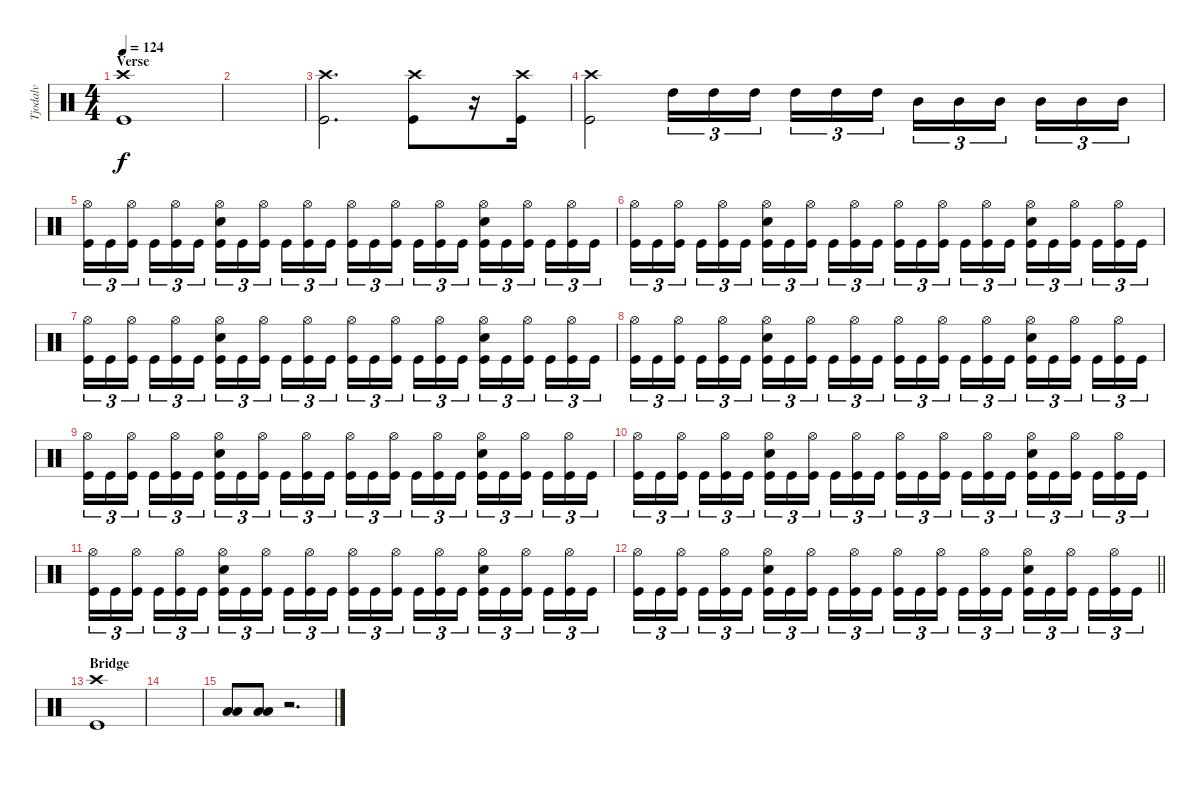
\track ("Tjodalv" "Tjodalv") {instrument percussion}
\staff {score}
\articulation defaults
\ts (4 4)
\section ("" "Verse")
\tempo 124
\clef neutral
\ks c
("Crash high (hit)" "Kick (hit)").1{dy f} |
|
("Crash high (hit)" "Kick (hit)").2{d} ("Crash high (hit)" "Kick (hit)").8 r.16 ("Crash high (hit)" "Kick (hit)").16 |
("Crash high (hit)" "Kick (hit)").2 "High Tom (hit)".16{tu (3 2)} "High Tom (hit)".16{tu (3 2)} "High Tom (hit)".16{tu (3 2) beam splitsecondary} "High Tom (hit)".16{tu (3 2)} "High Tom (hit)".16{tu (3 2)} "High Tom (hit)".16{tu (3 2)} "Mid Tom (hit)".16{tu (3 2)} "Mid Tom (hit)".16{tu (3 2)} "Mid Tom (hit)".16{tu (3 2) beam splitsecondary} "Mid Tom (hit)".16{tu (3 2)} "Mid Tom (hit)".16{tu (3 2)} "Mid Tom (hit)".16{tu (3 2)} |
("Kick (hit)" "Hi-Hat (open)").16{tu (3 2)} "Kick (hit)".16{tu (3 2)} ("Kick (hit)" "Hi-Hat (open)").16{tu (3 2) beam splitsecondary} "Kick (hit)".16{tu (3 2)} ("Kick (hit)" "Hi-Hat (open)").16{tu (3 2)} "Kick (hit)".16{tu (3 2)} ("Kick (hit)" "Snare (hit) 2" "Hi-Hat (open)").16{tu (3 2)} "Kick (hit)".16{tu (3 2)} ("Kick (hit)" "Hi-Hat (open)").16{tu (3 2) beam splitsecondary} "Kick (hit)".16{tu (3 2)} ("Kick (hit)" "Hi-Hat (open)").16{tu (3 2)} "Kick (hit)".16{tu (3 2)} ("Kick (hit)" "Hi-Hat (open)").16{tu (3 2)} "Kick (hit)".16{tu (3 2)} ("Kick (hit)" "Hi-Hat (open)").16{tu (3 2) beam splitsecondary} "Kick (hit)".16{tu (3 2)} ("Kick (hit)" "Hi-Hat (open)").16{tu (3 2)} "Kick (hit)".16{tu (3 2)} ("Kick (hit)" "Snare (hit) 2" "Hi-Hat (open)").16{tu (3 2)} "Kick (hit)".16{tu (3 2)} ("Kick (hit)" "Hi-Hat (open)").16{tu (3 2) beam splitsecondary} "Kick (hit)".16{tu (3 2)} ("Kick (hit)" "Hi-Hat (open)").16{tu (3 2)} "Kick (hit)".16{tu (3 2)} |
("Kick (hit)" "Hi-Hat (open)").16{tu (3 2)} "Kick (hit)".16{tu (3 2)} ("Kick (hit)" "Hi-Hat (open)").16{tu (3 2) beam splitsecondary} "Kick (hit)".16{tu (3 2)} ("Kick (hit)" "Hi-Hat (open)").16{tu (3 2)} "Kick (hit)".16{tu (3 2)} ("Kick (hit)" "Snare (hit) 2" "Hi-Hat (open)").16{tu (3 2)} "Kick (hit)".16{tu (3 2)} ("Kick (hit)" "Hi-Hat (open)").16{tu (3 2) beam splitsecondary} "Kick (hit)".16{tu (3 2)} ("Kick (hit)" "Hi-Hat (open)").16{tu (3 2)} "Kick (hit)".16{tu (3 2)} ("Kick (hit)" "Hi-Hat (open)").16{tu (3 2)} "Kick (hit)".16{tu (3 2)} ("Kick (hit)" "Hi-Hat (open)").16{tu (3 2) beam splitsecondary} "Kick (hit)".16{tu (3 2)} ("Kick (hit)" "Hi-Hat (open)").16{tu (3 2)} "Kick (hit)".16{tu (3 2)} ("Kick (hit)" "Snare (hit) 2" "Hi-Hat (open)").16{tu (3 2)} "Kick (hit)".16{tu (3 2)} ("Kick (hit)" "Hi-Hat (open)").16{tu (3 2) beam splitsecondary} "Kick (hit)".16{tu (3 2)} ("Kick (hit)" "Hi-Hat (open)").16{tu (3 2)} "Kick (hit)".16{tu (3 2)} |
("Kick (hit)" "Hi-Hat (open)").16{tu (3 2)} "Kick (hit)".16{tu (3 2)} ("Kick (hit)" "Hi-Hat (open)").16{tu (3 2) beam splitsecondary} "Kick (hit)".16{tu (3 2)} ("Kick (hit)" "Hi-Hat (open)").16{tu (3 2)} "Kick (hit)".16{tu (3 2)} ("Kick (hit)" "Snare (hit) 2" "Hi-Hat (open)").16{tu (3 2)} "Kick (hit)".16{tu (3 2)} ("Kick (hit)" "Hi-Hat (open)").16{tu (3 2) beam splitsecondary} "Kick (hit)".16{tu (3 2)} ("Kick (hit)" "Hi-Hat (open)").16{tu (3 2)} "Kick (hit)".16{tu (3 2)} ("Kick (hit)" "Hi-Hat (open)").16{tu (3 2)} "Kick (hit)".16{tu (3 2)} ("Kick (hit)" "Hi-Hat (open)").16{tu (3 2) beam splitsecondary} "Kick (hit)".16{tu (3 2)} ("Kick (hit)" "Hi-Hat (open)").16{tu (3 2)} "Kick (hit)".16{tu (3 2)} ("Kick (hit)" "Snare (hit) 2" "Hi-Hat (open)").16{tu (3 2)} "Kick (hit)".16{tu (3 2)} ("Kick (hit)" "Hi-Hat (open)").16{tu (3 2) beam splitsecondary} "Kick (hit)".16{tu (3 2)} ("Kick (hit)" "Hi-Hat (open)").16{tu (3 2)} "Kick (hit)".16{tu (3 2)} |
("Kick (hit)" "Hi-Hat (open)").16{tu (3 2)} "Kick (hit)".16{tu (3 2)} ("Kick (hit)" "Hi-Hat (open)").16{tu (3 2) beam splitsecondary} "Kick (hit)".16{tu (3 2)} ("Kick (hit)" "Hi-Hat (open)").16{tu (3 2)} "Kick (hit)".16{tu (3 2)} ("Kick (hit)" "Snare (hit) 2" "Hi-Hat (open)").16{tu (3 2)} "Kick (hit)".16{tu (3 2)} ("Kick (hit)" "Hi-Hat (open)").16{tu (3 2) beam splitsecondary} "Kick (hit)".16{tu (3 2)} ("Kick (hit)" "Hi-Hat (open)").16{tu (3 2)} "Kick (hit)".16{tu (3 2)} ("Kick (hit)" "Hi-Hat (open)").16{tu (3 2)} "Kick (hit)".16{tu (3 2)} ("Kick (hit)" "Hi-Hat (open)").16{tu (3 2) beam splitsecondary} "Kick (hit)".16{tu (3 2)} ("Kick (hit)" "Hi-Hat (open)").16{tu (3 2)} "Kick (hit)".16{tu (3 2)} ("Kick (hit)" "Snare (hit) 2" "Hi-Hat (open)").16{tu (3 2)} "Kick (hit)".16{tu (3 2)} ("Kick (hit)" "Hi-Hat (open)").16{tu (3 2) beam splitsecondary} "Kick (hit)".16{tu (3 2)} ("Kick (hit)" "Hi-Hat (open)").16{tu (3 2)} "Kick (hit)".16{tu (3 2)} |
("Kick (hit)" "Hi-Hat (open)").16{tu (3 2)} "Kick (hit)".16{tu (3 2)} ("Kick (hit)" "Hi-Hat (open)").16{tu (3 2) beam splitsecondary} "Kick (hit)".16{tu (3 2)} ("Kick (hit)" "Hi-Hat (open)").16{tu (3 2)} "Kick (hit)".16{tu (3 2)} ("Kick (hit)" "Snare (hit) 2" "Hi-Hat (open)").16{tu (3 2)} "Kick (hit)".16{tu (3 2)} ("Kick (hit)" "Hi-Hat (open)").16{tu (3 2) beam splitsecondary} "Kick (hit)".16{tu (3 2)} ("Kick (hit)" "Hi-Hat (open)").16{tu (3 2)} "Kick (hit)".16{tu (3 2)} ("Kick (hit)" "Hi-Hat (open)").16{tu (3 2)} "Kick (hit)".16{tu (3 2)} ("Kick (hit)" "Hi-Hat (open)").16{tu (3 2) beam splitsecondary} "Kick (hit)".16{tu (3 2)} ("Kick (hit)" "Hi-Hat (open)").16{tu (3 2)} "Kick (hit)".16{tu (3 2)} ("Kick (hit)" "Snare (hit) 2" "Hi-Hat (open)").16{tu (3 2)} "Kick (hit)".16{tu (3 2)} ("Kick (hit)" "Hi-Hat (open)").16{tu (3 2) beam splitsecondary} "Kick (hit)".16{tu (3 2)} ("Kick (hit)" "Hi-Hat (open)").16{tu (3 2)} "Kick (hit)".16{tu (3 2)} |
("Kick (hit)" "Hi-Hat (open)").16{tu (3 2)} "Kick (hit)".16{tu (3 2)} ("Kick (hit)" "Hi-Hat (open)").16{tu (3 2) beam splitsecondary} "Kick (hit)".16{tu (3 2)} ("Kick (hit)" "Hi-Hat (open)").16{tu (3 2)} "Kick (hit)".16{tu (3 2)} ("Kick (hit)" "Snare (hit) 2" "Hi-Hat (open)").16{tu (3 2)} "Kick (hit)".16{tu (3 2)} ("Kick (hit)" "Hi-Hat (open)").16{tu (3 2) beam splitsecondary} "Kick (hit)".16{tu (3 2)} ("Kick (hit)" "Hi-Hat (open)").16{tu (3 2)} "Kick (hit)".16{tu (3 2)} ("Kick (hit)" "Hi-Hat (open)").16{tu (3 2)} "Kick (hit)".16{tu (3 2)} ("Kick (hit)" "Hi-Hat (open)").16{tu (3 2) beam splitsecondary} "Kick (hit)".16{tu (3 2)} ("Kick (hit)" "Hi-Hat (open)").16{tu (3 2)} "Kick (hit)".16{tu (3 2)} ("Kick (hit)" "Snare (hit) 2" "Hi-Hat (open)").16{tu (3 2)} "Kick (hit)".16{tu (3 2)} ("Kick (hit)" "Hi-Hat (open)").16{tu (3 2) beam splitsecondary} "Kick (hit)".16{tu (3 2)} ("Kick (hit)" "Hi-Hat (open)").16{tu (3 2)} "Kick (hit)".16{tu (3 2)} |
("Kick (hit)" "Hi-Hat (open)").16{tu (3 2)} "Kick (hit)".16{tu (3 2)} ("Kick (hit)" "Hi-Hat (open)").16{tu (3 2) beam splitsecondary} "Kick (hit)".16{tu (3 2)} ("Kick (hit)" "Hi-Hat (open)").16{tu (3 2)} "Kick (hit)".16{tu (3 2)} ("Kick (hit)" "Snare (hit) 2" "Hi-Hat (open)").16{tu (3 2)} "Kick (hit)".16{tu (3 2)} ("Kick (hit)" "Hi-Hat (open)").16{tu (3 2) beam splitsecondary} "Kick (hit)".16{tu (3 2)} ("Kick (hit)" "Hi-Hat (open)").16{tu (3 2)} "Kick (hit)".16{tu (3 2)} ("Kick (hit)" "Hi-Hat (open)").16{tu (3 2)} "Kick (hit)".16{tu (3 2)} ("Kick (hit)" "Hi-Hat (open)").16{tu (3 2) beam splitsecondary} "Kick (hit)".16{tu (3 2)} ("Kick (hit)" "Hi-Hat (open)").16{tu (3 2)} "Kick (hit)".16{tu (3 2)} ("Kick (hit)" "Snare (hit) 2" "Hi-Hat (open)").16{tu (3 2)} "Kick (hit)".16{tu (3 2)} ("Kick (hit)" "Hi-Hat (open)").16{tu (3 2) beam splitsecondary} "Kick (hit)".16{tu (3 2)} ("Kick (hit)" "Hi-Hat (open)").16{tu (3 2)} "Kick (hit)".16{tu (3 2)} |
\barLineRight lightlight
("Kick (hit)" "Hi-Hat (open)").16{tu (3 2)} "Kick (hit)".16{tu (3 2)} ("Kick (hit)" "Hi-Hat (open)").16{tu (3 2) beam splitsecondary} "Kick (hit)".16{tu (3 2)} ("Kick (hit)" "Hi-Hat (open)").16{tu (3 2)} "Kick (hit)".16{tu (3 2)} ("Kick (hit)" "Snare (hit) 2" "Hi-Hat (open)").16{tu (3 2)} "Kick (hit)".16{tu (3 2)} ("Kick (hit)" "Hi-Hat (open)").16{tu (3 2) beam splitsecondary} "Kick (hit)".16{tu (3 2)} ("Kick (hit)" "Hi-Hat (open)").16{tu (3 2)} "Kick (hit)".16{tu (3 2)} ("Kick (hit)" "Hi-Hat (open)").16{tu (3 2)} "Kick (hit)".16{tu (3 2)} ("Kick (hit)" "Hi-Hat (open)").16{tu (3 2) beam splitsecondary} "Kick (hit)".16{tu (3 2)} ("Kick (hit)" "Hi-Hat (open)").16{tu (3 2)} "Kick (hit)".16{tu (3 2)} ("Kick (hit)" "Snare (hit) 2" "Hi-Hat (open)").16{tu (3 2)} "Kick (hit)".16{tu (3 2)} ("Kick (hit)" "Hi-Hat (open)").16{tu (3 2) beam splitsecondary} "Kick (hit)".16{tu (3 2)} ("Kick (hit)" "Hi-Hat (open)").16{tu (3 2)} "Kick (hit)".16{tu (3 2)} |
\section ("" "Bridge")
("Crash high (hit)" "Kick (hit)").1 |
|
("Low Tom (hit)" "Low Floor Tom (hit)").8 ("Low Tom (hit)" "Low Floor Tom (hit)").8 r.2{d}
